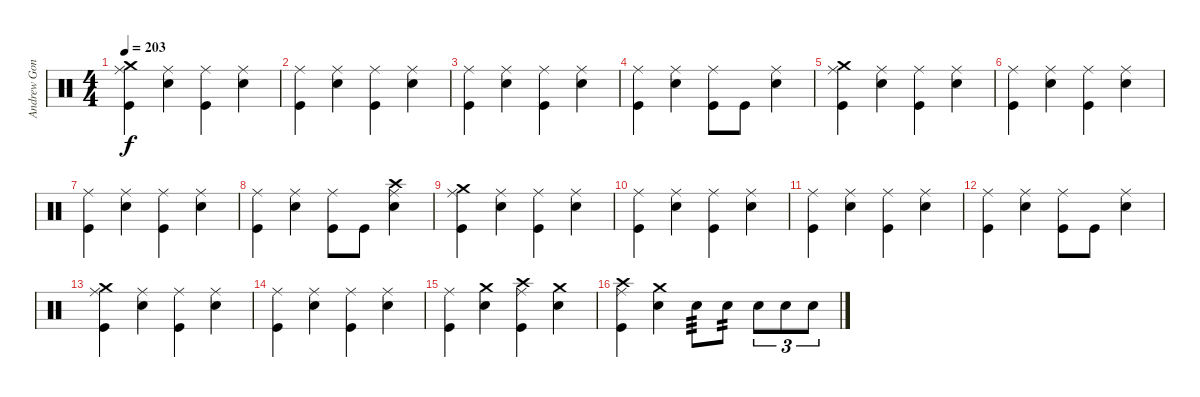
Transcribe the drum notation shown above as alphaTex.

\track ("Andrew Gonzales" "Andrew Gon") {instrument percussion}
\staff {score}
\articulation defaults
\ts (4 4)
\tempo 203
\clef neutral
\ks c
("Crash medium (hit)" "Ride (middle)" "Kick (hit)").4{dy f} ("Ride (middle)" "Electric Snare (hit)").4 ("Ride (middle)" "Kick (hit)").4 ("Ride (middle)" "Electric Snare (hit)").4 |
("Ride (middle)" "Kick (hit)").4 ("Ride (middle)" "Electric Snare (hit)").4 ("Ride (middle)" "Kick (hit)").4 ("Ride (middle)" "Electric Snare (hit)").4 |
("Ride (middle)" "Kick (hit)").4 ("Ride (middle)" "Electric Snare (hit)").4 ("Ride (middle)" "Kick (hit)").4 ("Ride (middle)" "Electric Snare (hit)").4 |
("Ride (middle)" "Kick (hit)").4 ("Ride (middle)" "Electric Snare (hit)").4 ("Ride (middle)" "Kick (hit)").8 "Kick (hit)".8 ("Ride (middle)" "Electric Snare (hit)").4 |
("Crash medium (hit)" "Ride (middle)" "Kick (hit)").4 ("Ride (middle)" "Electric Snare (hit)").4 ("Ride (middle)" "Kick (hit)").4 ("Ride (middle)" "Electric Snare (hit)").4 |
("Ride (middle)" "Kick (hit)").4 ("Ride (middle)" "Electric Snare (hit)").4 ("Ride (middle)" "Kick (hit)").4 ("Ride (middle)" "Electric Snare (hit)").4 |
("Ride (middle)" "Kick (hit)").4 ("Ride (middle)" "Electric Snare (hit)").4 ("Ride (middle)" "Kick (hit)").4 ("Ride (middle)" "Electric Snare (hit)").4 |
("Ride (middle)" "Kick (hit)").4 ("Ride (middle)" "Electric Snare (hit)").4 ("Ride (middle)" "Kick (hit)").8 "Kick (hit)".8 ("Crash high (hit)" "Ride (middle)" "Electric Snare (hit)").4 |
("Crash medium (hit)" "Ride (middle)" "Kick (hit)").4 ("Ride (middle)" "Electric Snare (hit)").4 ("Ride (middle)" "Kick (hit)").4 ("Ride (middle)" "Electric Snare (hit)").4 |
("Ride (middle)" "Kick (hit)").4 ("Ride (middle)" "Electric Snare (hit)").4 ("Ride (middle)" "Kick (hit)").4 ("Ride (middle)" "Electric Snare (hit)").4 |
("Ride (middle)" "Kick (hit)").4 ("Ride (middle)" "Electric Snare (hit)").4 ("Ride (middle)" "Kick (hit)").4 ("Ride (middle)" "Electric Snare (hit)").4 |
("Ride (middle)" "Kick (hit)").4 ("Ride (middle)" "Electric Snare (hit)").4 ("Ride (middle)" "Kick (hit)").8 "Kick (hit)".8 ("Ride (middle)" "Electric Snare (hit)").4 |
("Crash medium (hit)" "Ride (middle)" "Kick (hit)").4 ("Ride (middle)" "Electric Snare (hit)").4 ("Ride (middle)" "Kick (hit)").4 ("Ride (middle)" "Electric Snare (hit)").4 |
("Ride (middle)" "Kick (hit)").4 ("Ride (middle)" "Electric Snare (hit)").4 ("Ride (middle)" "Kick (hit)").4 ("Ride (middle)" "Electric Snare (hit)").4 |
("Ride (middle)" "Kick (hit)").4 ("Crash medium (hit)" "Electric Snare (hit)").4 ("Crash high (hit)" "Ride (middle)" "Kick (hit)").4 ("Crash medium (hit)" "Electric Snare (hit)").4 |
("Crash high (hit)" "Ride (middle)" "Kick (hit)").4 ("Crash medium (hit)" "Electric Snare (hit)").4 "Electric Snare (hit)".8{tp 3} "Electric Snare (hit)".8{tp 2} "Electric Snare (hit)".8{tu (3 2)} "Electric Snare (hit)".8{tu (3 2)} "Electric Snare (hit)".8{tu (3 2)}
